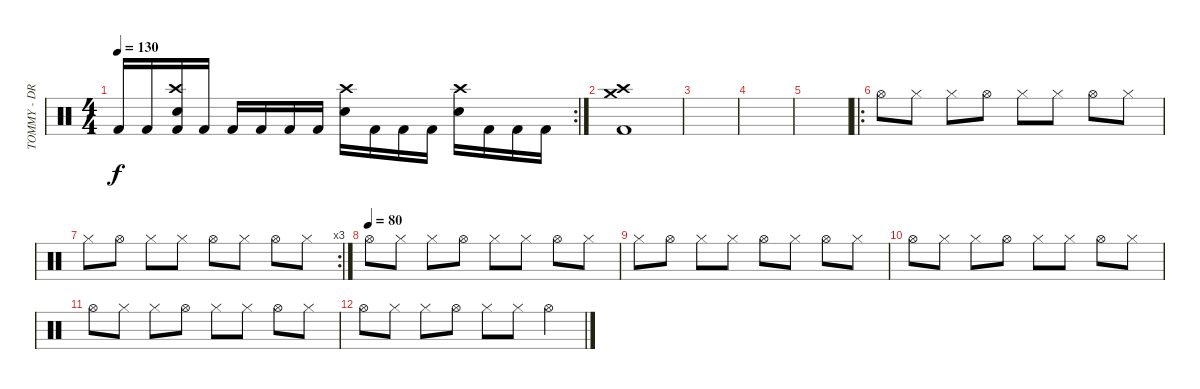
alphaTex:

\track ("TOMMY - DRUMS" "TOMMY - DR") {instrument percussion}
\staff {score}
\articulation defaults
\rc 2
\ts (4 4)
\tempo 130
\clef neutral
\ks c "Kick (hit) 2".16{dy f} "Kick (hit) 2".16
("Crash high (hit)" "Electric Snare (hit)" "Kick (hit) 2").16 "Kick (hit) 2".16 "Kick (hit) 2".16 "Kick (hit) 2".16 "Kick (hit) 2".16 "Kick (hit) 2".16 ("Crash high (hit)" "Electric Snare (hit)").16 "Kick (hit) 2".16 "Kick (hit) 2".16 "Kick (hit) 2".16 ("Crash high (hit)" "Electric Snare (hit)").16 "Kick (hit) 2".16 "Kick (hit) 2".16 "Kick (hit) 2".16 |
("Crash medium (hit)" "Crash high (hit)" "Kick (hit) 2").1 |
|
|
|
\ro "Hi-Hat (open)".8{volume 10} "Hi-Hat (closed)".8 "Hi-Hat (closed)".8 "Hi-Hat (open)".8 "Hi-Hat (closed)".8 "Hi-Hat (closed)".8 "Hi-Hat (open)".8 "Hi-Hat (closed)".8
|
\rc 3 "Hi-Hat (closed)".8 "Hi-Hat (open)".8 "Hi-Hat (closed)".8 "Hi-Hat (closed)".8 "Hi-Hat (open)".8 "Hi-Hat (closed)".8 "Hi-Hat (open)".8 "Hi-Hat (closed)".8
|
\tempo (80)
"Hi-Hat (open)".8{volume 10} "Hi-Hat (closed)".8 "Hi-Hat (closed)".8 "Hi-Hat (open)".8 "Hi-Hat (closed)".8 "Hi-Hat (closed)".8 "Hi-Hat (open)".8 "Hi-Hat (closed)".8 |
"Hi-Hat (closed)".8 "Hi-Hat (open)".8 "Hi-Hat (closed)".8 "Hi-Hat (closed)".8 "Hi-Hat (open)".8 "Hi-Hat (closed)".8 "Hi-Hat (open)".8 "Hi-Hat (closed)".8 |
"Hi-Hat (open)".8 "Hi-Hat (closed)".8 "Hi-Hat (closed)".8 "Hi-Hat (open)".8 "Hi-Hat (closed)".8 "Hi-Hat (closed)".8 "Hi-Hat (open)".8 "Hi-Hat (closed)".8 |
"Hi-Hat (open)".8 "Hi-Hat (closed)".8 "Hi-Hat (closed)".8 "Hi-Hat (open)".8 "Hi-Hat (closed)".8 "Hi-Hat (closed)".8 "Hi-Hat (open)".8 "Hi-Hat (closed)".8 |
"Hi-Hat (open)".8{volume 10} "Hi-Hat (closed)".8 "Hi-Hat (closed)".8 "Hi-Hat (open)".8 "Hi-Hat (closed)".8 "Hi-Hat (closed)".8 "Hi-Hat (open)".4
